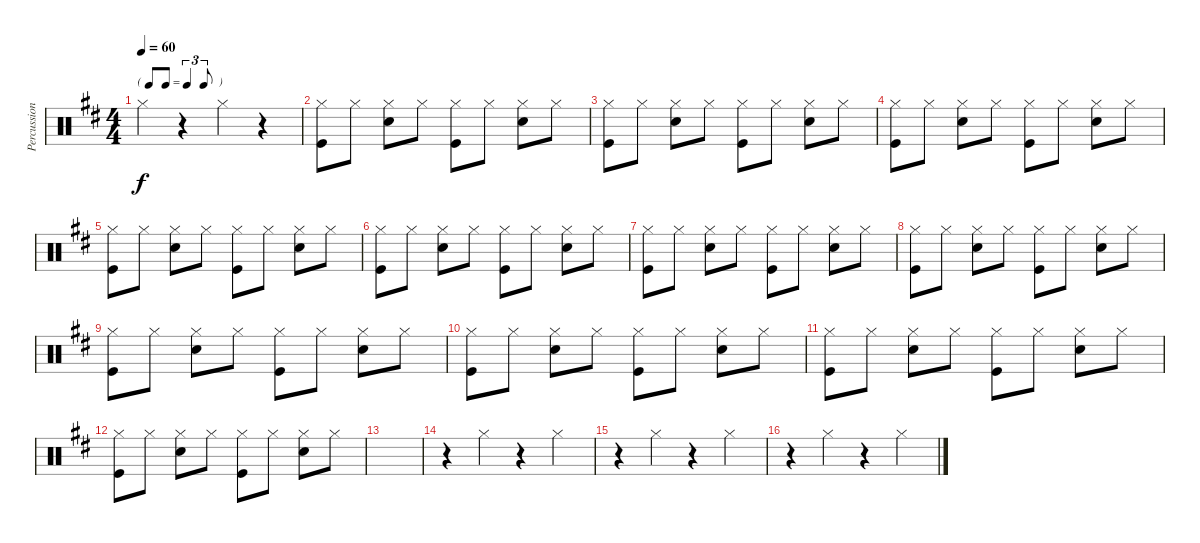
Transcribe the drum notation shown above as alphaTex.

\track ("Percussion" "Percussion") {instrument percussion}
\staff {score}
\articulation defaults
\ts (4 4)
\tf triplet8th
\tempo 60
\clef neutral
\ks d "Hi-Hat (closed)".4{dy f}
r.4 "Hi-Hat (closed)".4 r.4 |
("Hi-Hat (closed)" "Kick (hit)").8 "Hi-Hat (closed)".8 ("Hi-Hat (closed)" "Snare (hit) 2").8 "Hi-Hat (closed)".8 ("Hi-Hat (closed)" "Kick (hit)").8 "Hi-Hat (closed)".8 ("Hi-Hat (closed)" "Snare (hit) 2").8 "Hi-Hat (closed)".8 |
("Hi-Hat (closed)" "Kick (hit)").8 "Hi-Hat (closed)".8 ("Hi-Hat (closed)" "Snare (hit) 2").8 "Hi-Hat (closed)".8 ("Hi-Hat (closed)" "Kick (hit)").8 "Hi-Hat (closed)".8 ("Hi-Hat (closed)" "Snare (hit) 2").8 "Hi-Hat (closed)".8 |
("Hi-Hat (closed)" "Kick (hit)").8 "Hi-Hat (closed)".8 ("Hi-Hat (closed)" "Snare (hit) 2").8 "Hi-Hat (closed)".8 ("Hi-Hat (closed)" "Kick (hit)").8 "Hi-Hat (closed)".8 ("Hi-Hat (closed)" "Snare (hit) 2").8 "Hi-Hat (closed)".8 |
("Hi-Hat (closed)" "Kick (hit)").8 "Hi-Hat (closed)".8 ("Hi-Hat (closed)" "Snare (hit) 2").8 "Hi-Hat (closed)".8 ("Hi-Hat (closed)" "Kick (hit)").8 "Hi-Hat (closed)".8 ("Hi-Hat (closed)" "Snare (hit) 2").8 "Hi-Hat (closed)".8 |
("Hi-Hat (closed)" "Kick (hit)").8 "Hi-Hat (closed)".8 ("Hi-Hat (closed)" "Snare (hit) 2").8 "Hi-Hat (closed)".8 ("Hi-Hat (closed)" "Kick (hit)").8 "Hi-Hat (closed)".8 ("Hi-Hat (closed)" "Snare (hit) 2").8 "Hi-Hat (closed)".8 |
("Hi-Hat (closed)" "Kick (hit)").8 "Hi-Hat (closed)".8 ("Hi-Hat (closed)" "Snare (hit) 2").8 "Hi-Hat (closed)".8 ("Hi-Hat (closed)" "Kick (hit)").8 "Hi-Hat (closed)".8 ("Hi-Hat (closed)" "Snare (hit) 2").8 "Hi-Hat (closed)".8 |
("Hi-Hat (closed)" "Kick (hit)").8 "Hi-Hat (closed)".8 ("Hi-Hat (closed)" "Snare (hit) 2").8 "Hi-Hat (closed)".8 ("Hi-Hat (closed)" "Kick (hit)").8 "Hi-Hat (closed)".8 ("Hi-Hat (closed)" "Snare (hit) 2").8 "Hi-Hat (closed)".8 |
("Hi-Hat (closed)" "Kick (hit)").8 "Hi-Hat (closed)".8 ("Hi-Hat (closed)" "Snare (hit) 2").8 "Hi-Hat (closed)".8 ("Hi-Hat (closed)" "Kick (hit)").8 "Hi-Hat (closed)".8 ("Hi-Hat (closed)" "Snare (hit) 2").8 "Hi-Hat (closed)".8 |
("Hi-Hat (closed)" "Kick (hit)").8 "Hi-Hat (closed)".8 ("Hi-Hat (closed)" "Snare (hit) 2").8 "Hi-Hat (closed)".8 ("Hi-Hat (closed)" "Kick (hit)").8 "Hi-Hat (closed)".8 ("Hi-Hat (closed)" "Snare (hit) 2").8 "Hi-Hat (closed)".8 |
("Hi-Hat (closed)" "Kick (hit)").8 "Hi-Hat (closed)".8 ("Hi-Hat (closed)" "Snare (hit) 2").8 "Hi-Hat (closed)".8 ("Hi-Hat (closed)" "Kick (hit)").8 "Hi-Hat (closed)".8 ("Hi-Hat (closed)" "Snare (hit) 2").8 "Hi-Hat (closed)".8 |
("Hi-Hat (closed)" "Kick (hit)").8 "Hi-Hat (closed)".8 ("Hi-Hat (closed)" "Snare (hit) 2").8 "Hi-Hat (closed)".8 ("Hi-Hat (closed)" "Kick (hit)").8 "Hi-Hat (closed)".8 ("Hi-Hat (closed)" "Snare (hit) 2").8 "Hi-Hat (closed)".8 |
|
r.4 "Hi-Hat (closed)".4 r.4 "Hi-Hat (closed)".4 |
r.4 "Hi-Hat (closed)".4 r.4 "Hi-Hat (closed)".4 |
r.4 "Hi-Hat (closed)".4 r.4 "Hi-Hat (closed)".4
